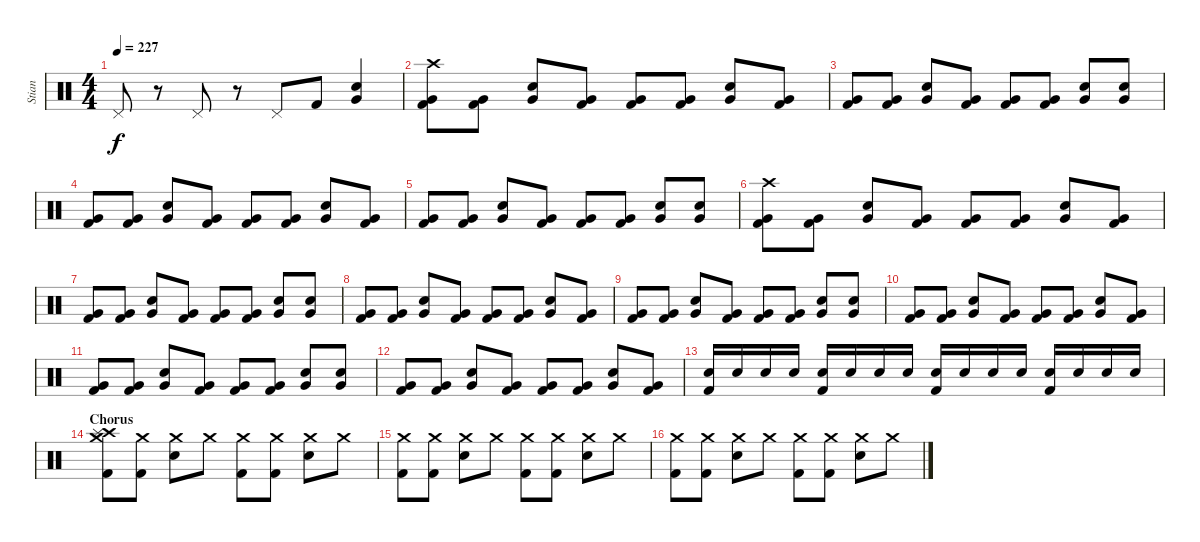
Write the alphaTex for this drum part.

\track ("Stian" "Stian") {instrument percussion}
\staff {score}
\articulation defaults
\ts (4 4)
\tempo 227
\clef neutral
\ks c "Pedal Hi-Hat (hit)".8{dy f}
r.8 "Pedal Hi-Hat (hit)".8 r.8 "Pedal Hi-Hat (hit)".8 "Kick (hit) 2".8 ("Very Low Tom (hit)" "Electric Snare (hit)").4 |
("Very Low Tom (hit)" "Crash high (hit)" "Kick (hit) 2").8 ("Very Low Tom (hit)" "Kick (hit) 2").8 ("Very Low Tom (hit)" "Electric Snare (hit)").8 ("Very Low Tom (hit)" "Kick (hit) 2").8 ("Very Low Tom (hit)" "Kick (hit) 2").8 ("Very Low Tom (hit)" "Kick (hit) 2").8 ("Very Low Tom (hit)" "Electric Snare (hit)").8 ("Very Low Tom (hit)" "Kick (hit) 2").8 |
("Very Low Tom (hit)" "Kick (hit) 2").8 ("Very Low Tom (hit)" "Kick (hit) 2").8 ("Very Low Tom (hit)" "Electric Snare (hit)").8 ("Very Low Tom (hit)" "Kick (hit) 2").8 ("Very Low Tom (hit)" "Kick (hit) 2").8 ("Very Low Tom (hit)" "Kick (hit) 2").8 ("Very Low Tom (hit)" "Electric Snare (hit)").8 ("Very Low Tom (hit)" "Electric Snare (hit)").8 |
("Very Low Tom (hit)" "Kick (hit) 2").8 ("Very Low Tom (hit)" "Kick (hit) 2").8 ("Very Low Tom (hit)" "Electric Snare (hit)").8 ("Very Low Tom (hit)" "Kick (hit) 2").8 ("Very Low Tom (hit)" "Kick (hit) 2").8 ("Very Low Tom (hit)" "Kick (hit) 2").8 ("Very Low Tom (hit)" "Electric Snare (hit)").8 ("Very Low Tom (hit)" "Kick (hit) 2").8 |
("Very Low Tom (hit)" "Kick (hit) 2").8 ("Very Low Tom (hit)" "Kick (hit) 2").8 ("Very Low Tom (hit)" "Electric Snare (hit)").8 ("Very Low Tom (hit)" "Kick (hit) 2").8 ("Very Low Tom (hit)" "Kick (hit) 2").8 ("Very Low Tom (hit)" "Kick (hit) 2").8 ("Very Low Tom (hit)" "Electric Snare (hit)").8 ("Very Low Tom (hit)" "Electric Snare (hit)").8 |
("Very Low Tom (hit)" "Crash high (hit)" "Kick (hit) 2").8 ("Very Low Tom (hit)" "Kick (hit) 2").8 ("Very Low Tom (hit)" "Electric Snare (hit)").8 ("Very Low Tom (hit)" "Kick (hit) 2").8 ("Very Low Tom (hit)" "Kick (hit) 2").8 ("Very Low Tom (hit)" "Kick (hit) 2").8 ("Very Low Tom (hit)" "Electric Snare (hit)").8 ("Very Low Tom (hit)" "Kick (hit) 2").8 |
("Very Low Tom (hit)" "Kick (hit) 2").8 ("Very Low Tom (hit)" "Kick (hit) 2").8 ("Very Low Tom (hit)" "Electric Snare (hit)").8 ("Very Low Tom (hit)" "Kick (hit) 2").8 ("Very Low Tom (hit)" "Kick (hit) 2").8 ("Very Low Tom (hit)" "Kick (hit) 2").8 ("Very Low Tom (hit)" "Electric Snare (hit)").8 ("Very Low Tom (hit)" "Electric Snare (hit)").8 |
("Very Low Tom (hit)" "Kick (hit) 2").8 ("Very Low Tom (hit)" "Kick (hit) 2").8 ("Very Low Tom (hit)" "Electric Snare (hit)").8 ("Very Low Tom (hit)" "Kick (hit) 2").8 ("Very Low Tom (hit)" "Kick (hit) 2").8 ("Very Low Tom (hit)" "Kick (hit) 2").8 ("Very Low Tom (hit)" "Electric Snare (hit)").8 ("Very Low Tom (hit)" "Kick (hit) 2").8 |
("Very Low Tom (hit)" "Kick (hit) 2").8 ("Very Low Tom (hit)" "Kick (hit) 2").8 ("Very Low Tom (hit)" "Electric Snare (hit)").8 ("Very Low Tom (hit)" "Kick (hit) 2").8 ("Very Low Tom (hit)" "Kick (hit) 2").8 ("Very Low Tom (hit)" "Kick (hit) 2").8 ("Very Low Tom (hit)" "Electric Snare (hit)").8 ("Very Low Tom (hit)" "Electric Snare (hit)").8 |
("Very Low Tom (hit)" "Kick (hit) 2").8 ("Very Low Tom (hit)" "Kick (hit) 2").8 ("Very Low Tom (hit)" "Electric Snare (hit)").8 ("Very Low Tom (hit)" "Kick (hit) 2").8 ("Very Low Tom (hit)" "Kick (hit) 2").8 ("Very Low Tom (hit)" "Kick (hit) 2").8 ("Very Low Tom (hit)" "Electric Snare (hit)").8 ("Very Low Tom (hit)" "Kick (hit) 2").8 |
("Very Low Tom (hit)" "Kick (hit) 2").8 ("Very Low Tom (hit)" "Kick (hit) 2").8 ("Very Low Tom (hit)" "Electric Snare (hit)").8 ("Very Low Tom (hit)" "Kick (hit) 2").8 ("Very Low Tom (hit)" "Kick (hit) 2").8 ("Very Low Tom (hit)" "Kick (hit) 2").8 ("Very Low Tom (hit)" "Electric Snare (hit)").8 ("Very Low Tom (hit)" "Electric Snare (hit)").8 |
("Very Low Tom (hit)" "Kick (hit) 2").8 ("Very Low Tom (hit)" "Kick (hit) 2").8 ("Very Low Tom (hit)" "Electric Snare (hit)").8 ("Very Low Tom (hit)" "Kick (hit) 2").8 ("Very Low Tom (hit)" "Kick (hit) 2").8 ("Very Low Tom (hit)" "Kick (hit) 2").8 ("Very Low Tom (hit)" "Electric Snare (hit)").8 ("Very Low Tom (hit)" "Kick (hit) 2").8 |
("Electric Snare (hit)" "Kick (hit) 2").16 "Electric Snare (hit)".16 "Electric Snare (hit)".16 "Electric Snare (hit)".16 ("Electric Snare (hit)" "Kick (hit) 2").16 "Electric Snare (hit)".16 "Electric Snare (hit)".16 "Electric Snare (hit)".16 ("Electric Snare (hit)" "Kick (hit) 2").16 "Electric Snare (hit)".16 "Electric Snare (hit)".16 "Electric Snare (hit)".16 ("Electric Snare (hit)" "Kick (hit) 2").16 "Electric Snare (hit)".16 "Electric Snare (hit)".16 "Electric Snare (hit)".16 |
\section ("" "Chorus")
("Crash medium (hit)" "Crash high (hit)" "Splash (hit)" "Kick (hit) 2").8 ("Crash medium (hit)" "Kick (hit) 2").8 ("Crash medium (hit)" "Electric Snare (hit)").8 "Crash medium (hit)".8 ("Crash medium (hit)" "Kick (hit) 2").8 ("Crash medium (hit)" "Kick (hit) 2").8 ("Crash medium (hit)" "Electric Snare (hit)").8 "Crash medium (hit)".8 |
("Crash medium (hit)" "Kick (hit) 2").8 ("Crash medium (hit)" "Kick (hit) 2").8 ("Crash medium (hit)" "Electric Snare (hit)").8 "Crash medium (hit)".8 ("Crash medium (hit)" "Kick (hit) 2").8 ("Crash medium (hit)" "Kick (hit) 2").8 ("Crash medium (hit)" "Electric Snare (hit)").8 "Crash medium (hit)".8 |
("Crash medium (hit)" "Kick (hit) 2").8 ("Crash medium (hit)" "Kick (hit) 2").8 ("Crash medium (hit)" "Electric Snare (hit)").8 "Crash medium (hit)".8 ("Crash medium (hit)" "Kick (hit) 2").8 ("Crash medium (hit)" "Kick (hit) 2").8 ("Crash medium (hit)" "Electric Snare (hit)").8 "Crash medium (hit)".8
